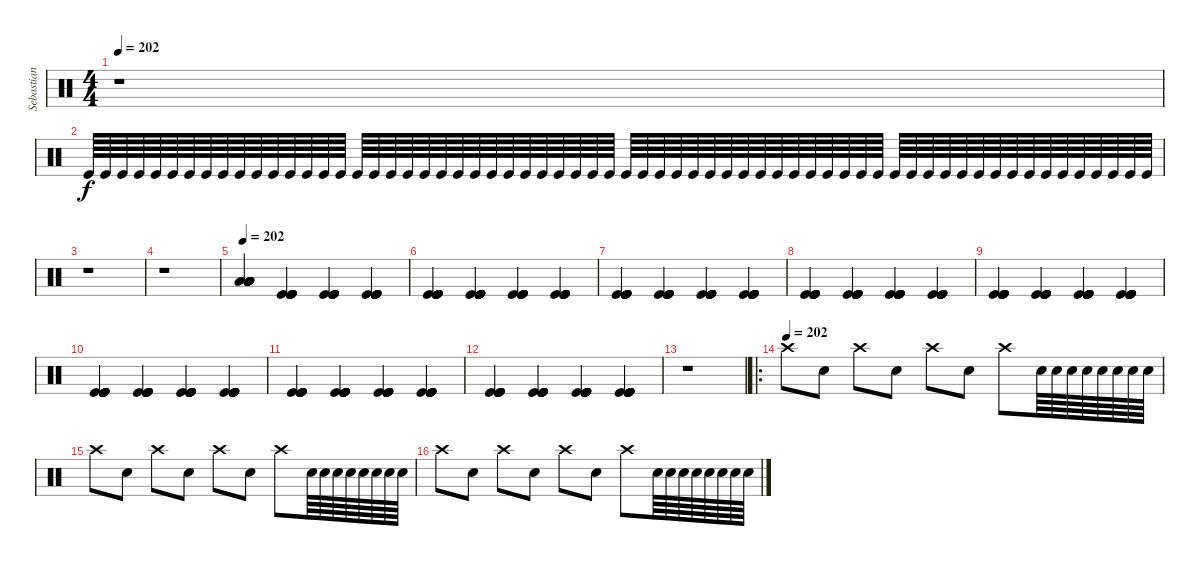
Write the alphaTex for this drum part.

\track ("Sebastian" "Sebastian") {instrument percussion}
\staff {score}
\articulation defaults
\ts (4 4)
\tempo 202
\clef neutral
\ks c
r.1{dy f} |
"Kick (hit)".64 "Kick (hit)".64 "Kick (hit)".64 "Kick (hit)".64 "Kick (hit)".64 "Kick (hit)".64 "Kick (hit)".64 "Kick (hit)".64 "Kick (hit)".64 "Kick (hit)".64 "Kick (hit)".64 "Kick (hit)".64 "Kick (hit)".64 "Kick (hit)".64 "Kick (hit)".64 "Kick (hit)".64 "Kick (hit)".64 "Kick (hit)".64 "Kick (hit)".64 "Kick (hit)".64 "Kick (hit)".64 "Kick (hit)".64 "Kick (hit)".64 "Kick (hit)".64 "Kick (hit)".64 "Kick (hit)".64 "Kick (hit)".64 "Kick (hit)".64 "Kick (hit)".64 "Kick (hit)".64 "Kick (hit)".64 "Kick (hit)".64 "Kick (hit)".64 "Kick (hit)".64 "Kick (hit)".64 "Kick (hit)".64 "Kick (hit)".64 "Kick (hit)".64 "Kick (hit)".64 "Kick (hit)".64 "Kick (hit)".64 "Kick (hit)".64 "Kick (hit)".64 "Kick (hit)".64 "Kick (hit)".64 "Kick (hit)".64 "Kick (hit)".64 "Kick (hit)".64 "Kick (hit)".64 "Kick (hit)".64 "Kick (hit)".64 "Kick (hit)".64 "Kick (hit)".64 "Kick (hit)".64 "Kick (hit)".64 "Kick (hit)".64 "Kick (hit)".64 "Kick (hit)".64 "Kick (hit)".64 "Kick (hit)".64 "Kick (hit)".64 "Kick (hit)".64 "Kick (hit)".64 "Kick (hit)".64 |
r.1 |
r.1 |
\tempo 202
("Low Floor Tom (hit)" "Low Floor Tom (hit)" "Low Floor Tom (hit)" "Low Floor Tom (hit)" "Low Floor Tom (hit)" "Low Floor Tom (hit)").4 ("Kick (hit)" "Kick (hit)" "Kick (hit)" "Kick (hit)" "Kick (hit)" "Kick (hit)").4 ("Kick (hit)" "Kick (hit)" "Kick (hit)" "Kick (hit)" "Kick (hit)" "Kick (hit)").4 ("Kick (hit)" "Kick (hit)" "Kick (hit)" "Kick (hit)" "Kick (hit)" "Kick (hit)").4 |
("Kick (hit)" "Kick (hit)" "Kick (hit)" "Kick (hit)" "Kick (hit)" "Kick (hit)").4 ("Kick (hit)" "Kick (hit)" "Kick (hit)" "Kick (hit)" "Kick (hit)" "Kick (hit)").4 ("Kick (hit)" "Kick (hit)" "Kick (hit)" "Kick (hit)" "Kick (hit)" "Kick (hit)").4 ("Kick (hit)" "Kick (hit)" "Kick (hit)" "Kick (hit)" "Kick (hit)" "Kick (hit)").4 |
("Kick (hit)" "Kick (hit)" "Kick (hit)" "Kick (hit)" "Kick (hit)" "Kick (hit)").4 ("Kick (hit)" "Kick (hit)" "Kick (hit)" "Kick (hit)" "Kick (hit)" "Kick (hit)").4 ("Kick (hit)" "Kick (hit)" "Kick (hit)" "Kick (hit)" "Kick (hit)" "Kick (hit)").4 ("Kick (hit)" "Kick (hit)" "Kick (hit)" "Kick (hit)" "Kick (hit)" "Kick (hit)").4 |
("Kick (hit)" "Kick (hit)" "Kick (hit)" "Kick (hit)" "Kick (hit)" "Kick (hit)").4 ("Kick (hit)" "Kick (hit)" "Kick (hit)" "Kick (hit)" "Kick (hit)" "Kick (hit)").4 ("Kick (hit)" "Kick (hit)" "Kick (hit)" "Kick (hit)" "Kick (hit)" "Kick (hit)").4 ("Kick (hit)" "Kick (hit)" "Kick (hit)" "Kick (hit)" "Kick (hit)" "Kick (hit)").4 |
("Kick (hit)" "Kick (hit)" "Kick (hit)" "Kick (hit)" "Kick (hit)" "Kick (hit)").4 ("Kick (hit)" "Kick (hit)" "Kick (hit)" "Kick (hit)" "Kick (hit)" "Kick (hit)").4 ("Kick (hit)" "Kick (hit)" "Kick (hit)" "Kick (hit)" "Kick (hit)" "Kick (hit)").4 ("Kick (hit)" "Kick (hit)" "Kick (hit)" "Kick (hit)" "Kick (hit)" "Kick (hit)").4 |
("Kick (hit)" "Kick (hit)" "Kick (hit)" "Kick (hit)" "Kick (hit)" "Kick (hit)").4 ("Kick (hit)" "Kick (hit)" "Kick (hit)" "Kick (hit)" "Kick (hit)" "Kick (hit)").4 ("Kick (hit)" "Kick (hit)" "Kick (hit)" "Kick (hit)" "Kick (hit)" "Kick (hit)").4 ("Kick (hit)" "Kick (hit)" "Kick (hit)" "Kick (hit)" "Kick (hit)" "Kick (hit)").4 |
("Kick (hit)" "Kick (hit)" "Kick (hit)" "Kick (hit)" "Kick (hit)" "Kick (hit)").4 ("Kick (hit)" "Kick (hit)" "Kick (hit)" "Kick (hit)" "Kick (hit)" "Kick (hit)").4 ("Kick (hit)" "Kick (hit)" "Kick (hit)" "Kick (hit)" "Kick (hit)" "Kick (hit)").4 ("Kick (hit)" "Kick (hit)" "Kick (hit)" "Kick (hit)" "Kick (hit)" "Kick (hit)").4 |
("Kick (hit)" "Kick (hit)" "Kick (hit)" "Kick (hit)" "Kick (hit)" "Kick (hit)").4 ("Kick (hit)" "Kick (hit)" "Kick (hit)" "Kick (hit)" "Kick (hit)" "Kick (hit)").4 ("Kick (hit)" "Kick (hit)" "Kick (hit)" "Kick (hit)" "Kick (hit)" "Kick (hit)").4 ("Kick (hit)" "Kick (hit)" "Kick (hit)" "Kick (hit)" "Kick (hit)" "Kick (hit)").4 |
r.1 |
\ro
\tempo (202)
"Crash high (hit)".8 "Electric Snare (hit)".8 "Crash high (hit)".8 "Electric Snare (hit)".8 "Crash high (hit)".8 "Electric Snare (hit)".8 "Crash high (hit)".8 "Electric Snare (hit)".64 "Electric Snare (hit)".64 "Electric Snare (hit)".64 "Electric Snare (hit)".64 "Electric Snare (hit)".64 "Electric Snare (hit)".64 "Electric Snare (hit)".64 "Electric Snare (hit)".64 |
"Crash high (hit)".8 "Electric Snare (hit)".8 "Crash high (hit)".8 "Electric Snare (hit)".8 "Crash high (hit)".8 "Electric Snare (hit)".8 "Crash high (hit)".8 "Electric Snare (hit)".64 "Electric Snare (hit)".64 "Electric Snare (hit)".64 "Electric Snare (hit)".64 "Electric Snare (hit)".64 "Electric Snare (hit)".64 "Electric Snare (hit)".64 "Electric Snare (hit)".64 |
"Crash high (hit)".8 "Electric Snare (hit)".8 "Crash high (hit)".8 "Electric Snare (hit)".8 "Crash high (hit)".8 "Electric Snare (hit)".8 "Crash high (hit)".8 "Electric Snare (hit)".64 "Electric Snare (hit)".64 "Electric Snare (hit)".64 "Electric Snare (hit)".64 "Electric Snare (hit)".64 "Electric Snare (hit)".64 "Electric Snare (hit)".64 "Electric Snare (hit)".64
